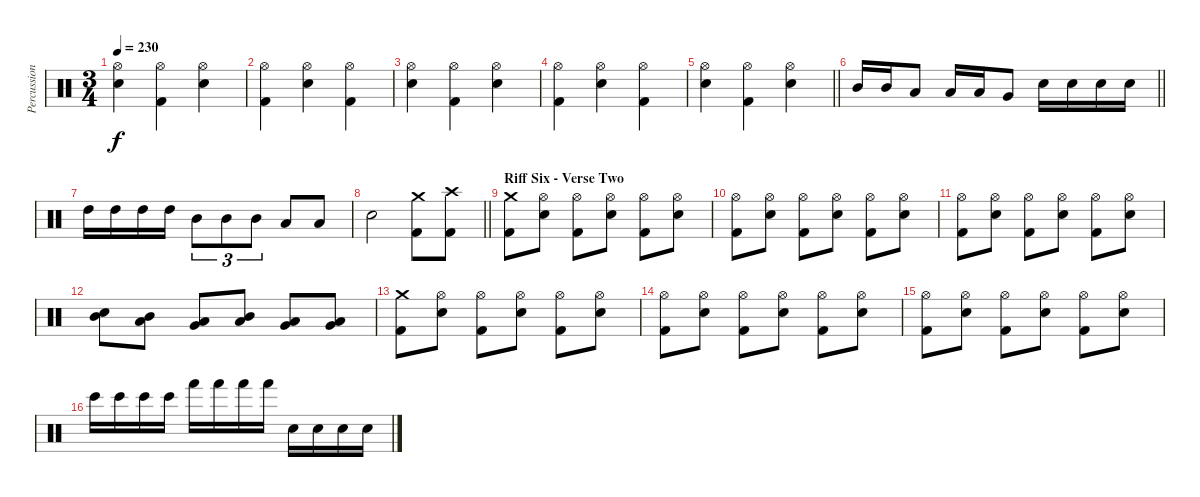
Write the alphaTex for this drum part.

\track ("Percussion" "Percussion") {instrument percussion}
\staff {score}
\articulation defaults
\ts (3 4)
\tempo 230
\clef neutral
\ks c
("Hi-Hat (open)" "Electric Snare (hit)").4{dy f} ("Hi-Hat (open)" "Kick (hit) 2").4 ("Hi-Hat (open)" "Electric Snare (hit)").4 |
("Hi-Hat (open)" "Kick (hit) 2").4 ("Hi-Hat (open)" "Electric Snare (hit)").4 ("Hi-Hat (open)" "Kick (hit) 2").4 |
("Hi-Hat (open)" "Electric Snare (hit)").4 ("Hi-Hat (open)" "Kick (hit) 2").4 ("Hi-Hat (open)" "Electric Snare (hit)").4 |
("Hi-Hat (open)" "Kick (hit) 2").4 ("Hi-Hat (open)" "Electric Snare (hit)").4 ("Hi-Hat (open)" "Kick (hit) 2").4 |
\barLineRight lightlight
("Hi-Hat (open)" "Electric Snare (hit)").4 ("Hi-Hat (open)" "Kick (hit) 2").4 ("Hi-Hat (open)" "Electric Snare (hit)").4 |
\barLineRight lightlight "Mid Tom (hit)".16 "Mid Tom (hit)".16 "Low Tom (hit)".8 "Low Tom (hit)".16 "Low Tom (hit)".16 "Very Low Tom (hit)".8 "Electric Snare (hit)".16 "Electric Snare (hit)".16 "Electric Snare (hit)".16 "Electric Snare (hit)".16
|
"High Tom (hit)".16 "High Tom (hit)".16 "High Tom (hit)".16 "High Tom (hit)".16 "Mid Tom (hit)".8{tu (3 2)} "Mid Tom (hit)".8{tu (3 2)} "Mid Tom (hit)".8{tu (3 2)} "Low Tom (hit)".8 "Low Tom (hit)".8 |
\barLineRight lightlight "Electric Snare (hit)".2
("Crash medium (hit)" "Kick (hit) 2").8 ("Crash high (hit)" "Kick (hit) 2").8 |
\section ("" "Riff Six - Verse Two")
("Crash medium (hit)" "Kick (hit) 2").8 ("Hi-Hat (open)" "Electric Snare (hit)").8 ("Hi-Hat (open)" "Kick (hit) 2").8 ("Hi-Hat (open)" "Electric Snare (hit)").8 ("Hi-Hat (open)" "Kick (hit) 2").8 ("Hi-Hat (open)" "Electric Snare (hit)").8 |
("Hi-Hat (open)" "Kick (hit) 2").8 ("Hi-Hat (open)" "Electric Snare (hit)").8 ("Hi-Hat (open)" "Kick (hit) 2").8 ("Hi-Hat (open)" "Electric Snare (hit)").8 ("Hi-Hat (open)" "Kick (hit) 2").8 ("Hi-Hat (open)" "Electric Snare (hit)").8 |
("Hi-Hat (open)" "Kick (hit) 2").8 ("Hi-Hat (open)" "Electric Snare (hit)").8 ("Hi-Hat (open)" "Kick (hit) 2").8 ("Hi-Hat (open)" "Electric Snare (hit)").8 ("Hi-Hat (open)" "Kick (hit) 2").8 ("Hi-Hat (open)" "Electric Snare (hit)").8 |
("Mid Tom (hit)" "Electric Snare (hit)").8 ("Low Tom (hit)" "Mid Tom (hit)").8 ("Very Low Tom (hit)" "Low Tom (hit)").8 ("Low Tom (hit)" "Mid Tom (hit)").8 ("Very Low Tom (hit)" "Low Tom (hit)").8 ("Very Low Tom (hit)" "Low Tom (hit)").8 |
("Crash medium (hit)" "Kick (hit) 2").8 ("Hi-Hat (open)" "Electric Snare (hit)").8 ("Hi-Hat (open)" "Kick (hit) 2").8 ("Hi-Hat (open)" "Electric Snare (hit)").8 ("Hi-Hat (open)" "Kick (hit) 2").8 ("Hi-Hat (open)" "Electric Snare (hit)").8 |
("Hi-Hat (open)" "Kick (hit) 2").8 ("Hi-Hat (open)" "Electric Snare (hit)").8 ("Hi-Hat (open)" "Kick (hit) 2").8 ("Hi-Hat (open)" "Electric Snare (hit)").8 ("Hi-Hat (open)" "Kick (hit) 2").8 ("Hi-Hat (open)" "Electric Snare (hit)").8 |
("Hi-Hat (open)" "Kick (hit) 2").8 ("Hi-Hat (open)" "Electric Snare (hit)").8 ("Hi-Hat (open)" "Kick (hit) 2").8 ("Hi-Hat (open)" "Electric Snare (hit)").8 ("Hi-Hat (open)" "Kick (hit) 2").8 ("Hi-Hat (open)" "Electric Snare (hit)").8 |
"Bongo High (hit)".16 "Bongo High (hit)".16 "Bongo High (hit)".16 "Bongo High (hit)".16 "Hand (hit)".16 "Hand (hit)".16 "Hand (hit)".16 "Hand (hit)".16 "Electric Snare (hit)".16 "Electric Snare (hit)".16 "Electric Snare (hit)".16 "Electric Snare (hit)".16
